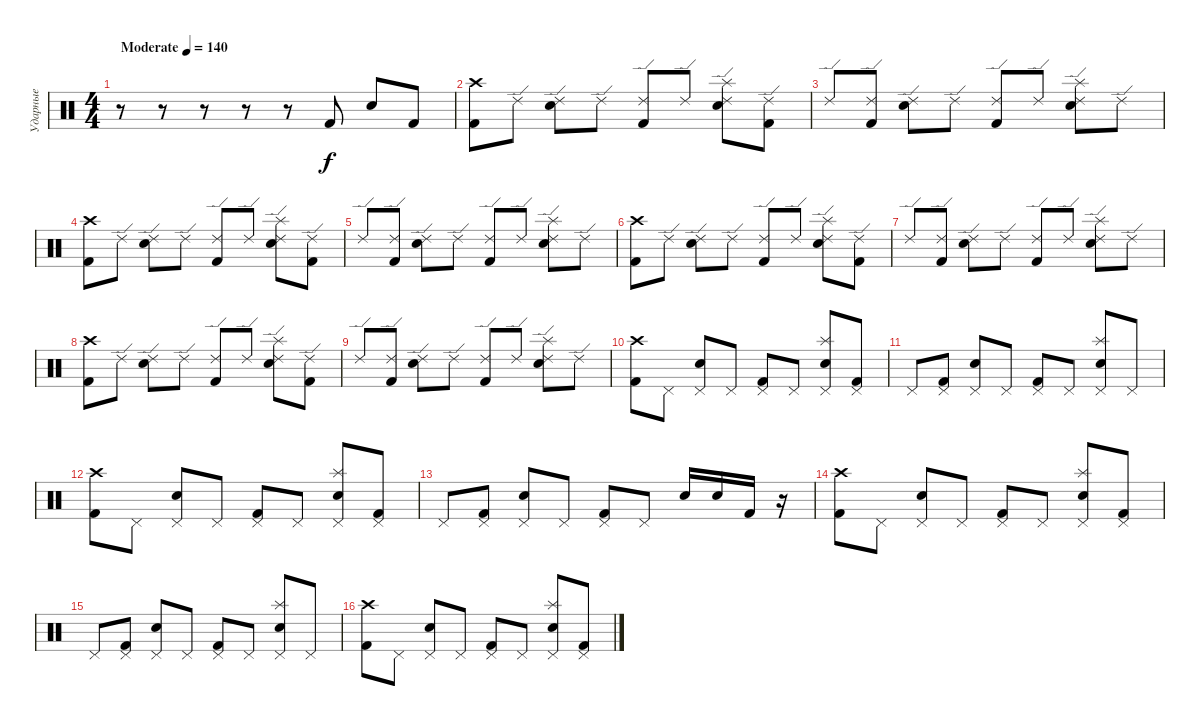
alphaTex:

\track ("Ударные" "Ударные") {instrument percussion}
\staff {score}
\articulation defaults
\ts (4 4)
\tempo (140 "Moderate")
\clef neutral
\ks c
r.8{dy f} r.8 r.8 r.8 r.8 "Kick (hit) 2".8 "Electric Snare (hit)".8 "Kick (hit) 2".8 |
("Crash high (hit)" "Kick (hit) 2").8 "Ride (edge) 2".8 ("Ride (edge) 2" "Electric Snare (hit)").8 "Ride (edge) 2".8 ("Ride (edge) 2" "Kick (hit) 2").8 "Ride (edge) 2".8 ("Splash (hit)" "Ride (edge) 2" "Electric Snare (hit)").8 ("Ride (edge) 2" "Kick (hit) 2").8 |
"Ride (edge) 2".8 ("Ride (edge) 2" "Kick (hit) 2").8 ("Ride (edge) 2" "Electric Snare (hit)").8 "Ride (edge) 2".8 ("Ride (edge) 2" "Kick (hit) 2").8 "Ride (edge) 2".8 ("Splash (hit)" "Ride (edge) 2" "Electric Snare (hit)").8 "Ride (edge) 2".8 |
("Crash high (hit)" "Kick (hit) 2").8 "Ride (edge) 2".8 ("Ride (edge) 2" "Electric Snare (hit)").8 "Ride (edge) 2".8 ("Ride (edge) 2" "Kick (hit) 2").8 "Ride (edge) 2".8 ("Splash (hit)" "Ride (edge) 2" "Electric Snare (hit)").8 ("Ride (edge) 2" "Kick (hit) 2").8 |
"Ride (edge) 2".8 ("Ride (edge) 2" "Kick (hit) 2").8 ("Ride (edge) 2" "Electric Snare (hit)").8 "Ride (edge) 2".8 ("Ride (edge) 2" "Kick (hit) 2").8 "Ride (edge) 2".8 ("Splash (hit)" "Ride (edge) 2" "Electric Snare (hit)").8 "Ride (edge) 2".8 |
("Crash high (hit)" "Kick (hit) 2").8 "Ride (edge) 2".8 ("Ride (edge) 2" "Electric Snare (hit)").8 "Ride (edge) 2".8 ("Ride (edge) 2" "Kick (hit) 2").8 "Ride (edge) 2".8 ("Splash (hit)" "Ride (edge) 2" "Electric Snare (hit)").8 ("Ride (edge) 2" "Kick (hit) 2").8 |
"Ride (edge) 2".8 ("Ride (edge) 2" "Kick (hit) 2").8 ("Ride (edge) 2" "Electric Snare (hit)").8 "Ride (edge) 2".8 ("Ride (edge) 2" "Kick (hit) 2").8 "Ride (edge) 2".8 ("Splash (hit)" "Ride (edge) 2" "Electric Snare (hit)").8 "Ride (edge) 2".8 |
("Crash high (hit)" "Kick (hit) 2").8 "Ride (edge) 2".8 ("Ride (edge) 2" "Electric Snare (hit)").8 "Ride (edge) 2".8 ("Ride (edge) 2" "Kick (hit) 2").8 "Ride (edge) 2".8 ("Splash (hit)" "Ride (edge) 2" "Electric Snare (hit)").8 ("Ride (edge) 2" "Kick (hit) 2").8 |
"Ride (edge) 2".8 ("Ride (edge) 2" "Kick (hit) 2").8 ("Ride (edge) 2" "Electric Snare (hit)").8 "Ride (edge) 2".8 ("Ride (edge) 2" "Kick (hit) 2").8 "Ride (edge) 2".8 ("Splash (hit)" "Ride (edge) 2" "Electric Snare (hit)").8 "Ride (edge) 2".8 |
("Crash high (hit)" "Kick (hit) 2").8 "Pedal Hi-Hat (hit)".8 ("Pedal Hi-Hat (hit)" "Electric Snare (hit)").8 "Pedal Hi-Hat (hit)".8 ("Pedal Hi-Hat (hit)" "Kick (hit) 2").8 "Pedal Hi-Hat (hit)".8 ("Splash (hit)" "Pedal Hi-Hat (hit)" "Electric Snare (hit)").8 ("Pedal Hi-Hat (hit)" "Kick (hit) 2").8 |
"Pedal Hi-Hat (hit)".8 ("Pedal Hi-Hat (hit)" "Kick (hit) 2").8 ("Pedal Hi-Hat (hit)" "Electric Snare (hit)").8 "Pedal Hi-Hat (hit)".8 ("Pedal Hi-Hat (hit)" "Kick (hit) 2").8 "Pedal Hi-Hat (hit)".8 ("Splash (hit)" "Pedal Hi-Hat (hit)" "Electric Snare (hit)").8 "Pedal Hi-Hat (hit)".8 |
("Crash high (hit)" "Kick (hit) 2").8 "Pedal Hi-Hat (hit)".8 ("Pedal Hi-Hat (hit)" "Electric Snare (hit)").8 "Pedal Hi-Hat (hit)".8 ("Pedal Hi-Hat (hit)" "Kick (hit) 2").8 "Pedal Hi-Hat (hit)".8 ("Splash (hit)" "Pedal Hi-Hat (hit)" "Electric Snare (hit)").8 ("Pedal Hi-Hat (hit)" "Kick (hit) 2").8 |
"Pedal Hi-Hat (hit)".8 ("Pedal Hi-Hat (hit)" "Kick (hit) 2").8 ("Pedal Hi-Hat (hit)" "Electric Snare (hit)").8 "Pedal Hi-Hat (hit)".8 ("Pedal Hi-Hat (hit)" "Kick (hit) 2").8 "Pedal Hi-Hat (hit)".8 "Electric Snare (hit)".16 "Electric Snare (hit)".16 "Kick (hit) 2".16 r.16 |
("Crash high (hit)" "Kick (hit) 2").8 "Pedal Hi-Hat (hit)".8 ("Pedal Hi-Hat (hit)" "Electric Snare (hit)").8 "Pedal Hi-Hat (hit)".8 ("Pedal Hi-Hat (hit)" "Kick (hit) 2").8 "Pedal Hi-Hat (hit)".8 ("Splash (hit)" "Pedal Hi-Hat (hit)" "Electric Snare (hit)").8 ("Pedal Hi-Hat (hit)" "Kick (hit) 2").8 |
"Pedal Hi-Hat (hit)".8 ("Pedal Hi-Hat (hit)" "Kick (hit) 2").8 ("Pedal Hi-Hat (hit)" "Electric Snare (hit)").8 "Pedal Hi-Hat (hit)".8 ("Pedal Hi-Hat (hit)" "Kick (hit) 2").8 "Pedal Hi-Hat (hit)".8 ("Splash (hit)" "Pedal Hi-Hat (hit)" "Electric Snare (hit)").8 "Pedal Hi-Hat (hit)".8 |
("Crash high (hit)" "Kick (hit) 2").8 "Pedal Hi-Hat (hit)".8 ("Pedal Hi-Hat (hit)" "Electric Snare (hit)").8 "Pedal Hi-Hat (hit)".8 ("Pedal Hi-Hat (hit)" "Kick (hit) 2").8 "Pedal Hi-Hat (hit)".8 ("Splash (hit)" "Pedal Hi-Hat (hit)" "Electric Snare (hit)").8 ("Pedal Hi-Hat (hit)" "Kick (hit) 2").8
